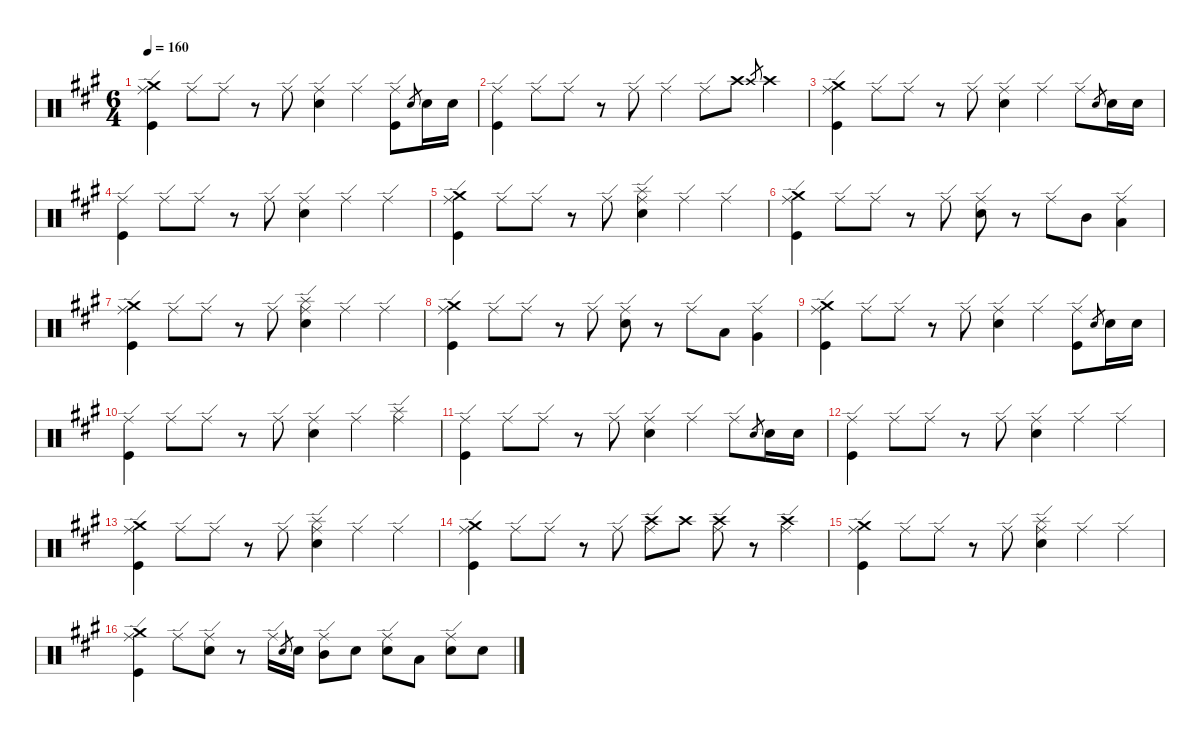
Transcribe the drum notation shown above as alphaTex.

\defaultSystemsLayout 4
\hideDynamics
\bracketExtendMode nobrackets
\singleTrackTrackNamePolicy hidden
\multiTrackTrackNamePolicy hidden
\firstSystemTrackNameMode fullname
\firstSystemTrackNameOrientation horizontal
\otherSystemsTrackNameOrientation horizontal
\track ("Drums" "drm.") {instrument percussion}
\staff {score}
\articulation defaults
\ts (6 4)
\tempo 160
\clef neutral
\ks f#minor
("Crash medium (hit)"{acc forcenatural} "Ride (edge)"{acc forcenatural} "Kick (hit)"{acc forcenatural}).4{dy f beam Down} "Ride (edge)"{acc forcenatural}.8{dy mf beam Down} "Ride (edge)"{acc forcenatural}.8{dy f beam Down} r.8{beam Down} "Ride (edge)"{acc forcenatural}.8{dy mf beam Down} ("Ride (edge)"{acc forcenatural} "Snare (hit) 2"{acc forcenatural}).4{dy f beam Down} "Ride (edge)"{acc forcenatural}.4{beam Down} ("Ride (edge)"{acc forcenatural} "Kick (hit)"{acc forcenatural}).8{beam Down} "Electric Snare (hit)"{acc forcenatural}.8{gr dy ppp beam Up} "Snare (hit) 2"{acc forcenatural}.16{dy p beam Down} "Snare (hit) 2"{acc forcenatural}.16{beam Down} |
("Ride (edge)"{acc forcenatural} "Kick (hit)"{acc forcenatural}).4{dy f beam Down} "Ride (edge)"{acc forcenatural}.8{dy mf beam Down} "Ride (edge)"{acc forcenatural}.8{dy f beam Down} r.8{beam Down} "Ride (edge)"{acc forcenatural}.8{dy mf beam Down} "Ride (edge)"{acc forcenatural}.4{dy f beam Down} "Ride (edge)"{acc forcenatural}.8{beam Down} "Crash high (hit)"{acc forcenatural}.8{dy p beam Down} "Crash high (hit)"{acc forcenatural}.8{gr dy pp beam Up} "Crash high (hit)"{acc forcenatural}.4{dy mp beam Down} |
("Crash medium (hit)"{acc forcenatural} "Ride (edge)"{acc forcenatural} "Kick (hit)"{acc forcenatural}).4{dy f beam Down} "Ride (edge)"{acc forcenatural}.8{dy mf beam Down} "Ride (edge)"{acc forcenatural}.8{dy f beam Down} r.8{beam Down} "Ride (edge)"{acc forcenatural}.8{dy mf beam Down} ("Ride (edge)"{acc forcenatural} "Snare (hit) 2"{acc forcenatural}).4{dy f beam Down} "Ride (edge)"{acc forcenatural}.4{beam Down} "Ride (edge)"{acc forcenatural}.8{beam Down} "Electric Snare (hit)"{acc forcenatural}.8{gr dy ppp beam Up} "Snare (hit) 2"{acc forcenatural}.16{dy p beam Down} "Snare (hit) 2"{acc forcenatural}.16{beam Down} |
("Ride (edge)"{acc forcenatural} "Kick (hit)"{acc forcenatural}).4{dy f beam Down} "Ride (edge)"{acc forcenatural}.8{dy mf beam Down} "Ride (edge)"{acc forcenatural}.8{dy f beam Down} r.8{beam Down} "Ride (edge)"{acc forcenatural}.8{dy mf beam Down} ("Ride (edge)"{acc forcenatural} "Snare (hit) 2"{acc forcenatural}).4{dy f beam Down} "Ride (edge)"{acc forcenatural}.4{beam Down} "Ride (edge)"{acc forcenatural}.4{beam Down} |
("Crash medium (hit)"{acc forcenatural} "Ride (edge)"{acc forcenatural} "Kick (hit)"{acc forcenatural}).4{beam Down} "Ride (edge)"{acc forcenatural}.8{dy mf beam Down} "Ride (edge)"{acc forcenatural}.8{dy f beam Down} r.8{beam Down} "Ride (edge)"{acc forcenatural}.8{dy mf beam Down} ("Splash (hit)"{acc forcenatural} "Ride (edge)"{acc forcenatural} "Snare (hit) 2"{acc forcenatural}).4{beam Down} "Ride (edge)"{acc forcenatural}.4{dy f beam Down} "Ride (edge)"{acc forcenatural}.4{beam Down} |
("Crash medium (hit)"{acc forcenatural} "Ride (edge)"{acc forcenatural} "Kick (hit)"{acc forcenatural}).4{beam Down} "Ride (edge)"{acc forcenatural}.8{dy mf beam Down} "Ride (edge)"{acc forcenatural}.8{dy f beam Down} r.8{beam Down} "Ride (edge)"{acc forcenatural}.8{dy mf beam Down} ("Ride (edge)"{acc forcenatural} "Snare (hit) 2"{acc forcenatural}).8{dy f beam Down} r.8{beam Down} "Ride (edge)"{acc forcenatural}.8{beam Down} "Mid Tom (hit)"{acc forcenatural}.8{beam Down} ("Ride (edge)"{acc forcenatural} "Low Tom (hit)"{acc forcenatural}).4{beam Down} |
("Crash medium (hit)"{acc forcenatural} "Ride (edge)"{acc forcenatural} "Kick (hit)"{acc forcenatural}).4{beam Down} "Ride (edge)"{acc forcenatural}.8{dy mf beam Down} "Ride (edge)"{acc forcenatural}.8{dy f beam Down} r.8{beam Down} "Ride (edge)"{acc forcenatural}.8{dy mf beam Down} ("Splash (hit)"{acc forcenatural} "Ride (edge)"{acc forcenatural} "Snare (hit) 2"{acc forcenatural}).4{beam Down} "Ride (edge)"{acc forcenatural}.4{dy f beam Down} "Ride (edge)"{acc forcenatural}.4{beam Down} |
("Crash medium (hit)"{acc forcenatural} "Ride (edge)"{acc forcenatural} "Kick (hit)"{acc forcenatural}).4{beam Down} "Ride (edge)"{acc forcenatural}.8{dy mf beam Down} "Ride (edge)"{acc forcenatural}.8{dy f beam Down} r.8{beam Down} "Ride (edge)"{acc forcenatural}.8{dy mf beam Down} ("Ride (edge)"{acc forcenatural} "Snare (hit) 2"{acc forcenatural}).8{dy f beam Down} r.8{beam Down} "Ride (edge)"{acc forcenatural}.8{beam Down} "Low Tom (hit)"{acc forcenatural}.8{beam Up} ("Ride (edge)"{acc forcenatural} "Very Low Tom (hit)"{acc forcenatural}).4{beam Down} |
("Crash medium (hit)"{acc forcenatural} "Ride (edge)"{acc forcenatural} "Kick (hit)"{acc forcenatural}).4{beam Down} "Ride (edge)"{acc forcenatural}.8{dy mf beam Down} "Ride (edge)"{acc forcenatural}.8{dy f beam Down} r.8{beam Down} "Ride (edge)"{acc forcenatural}.8{dy mf beam Down} ("Ride (edge)"{acc forcenatural} "Snare (hit) 2"{acc forcenatural}).4{dy f beam Down} "Ride (edge)"{acc forcenatural}.4{beam Down} ("Ride (edge)"{acc forcenatural} "Kick (hit)"{acc forcenatural}).8{beam Down} "Electric Snare (hit)"{acc forcenatural}.8{gr dy ppp beam Up} "Snare (hit) 2"{acc forcenatural}.16{dy p beam Down} "Snare (hit) 2"{acc forcenatural}.16{beam Down} |
("Ride (edge)"{acc forcenatural} "Kick (hit)"{acc forcenatural}).4{dy f beam Down} "Ride (edge)"{acc forcenatural}.8{dy mf beam Down} "Ride (edge)"{acc forcenatural}.8{dy f beam Down} r.8{beam Down} "Ride (edge)"{acc forcenatural}.8{dy mf beam Down} ("Ride (edge)"{acc forcenatural} "Snare (hit) 2"{acc forcenatural}).4{dy f beam Down} "Ride (edge)"{acc forcenatural}.4{beam Down} ("Splash (hit)"{acc forcenatural} "Ride (edge)"{acc forcenatural}).4{dy mf beam Down} |
("Ride (edge)"{acc forcenatural} "Kick (hit)"{acc forcenatural}).4{dy f beam Down} "Ride (edge)"{acc forcenatural}.8{dy mf beam Down} "Ride (edge)"{acc forcenatural}.8{dy f beam Down} r.8{beam Down} "Ride (edge)"{acc forcenatural}.8{dy mf beam Down} ("Ride (edge)"{acc forcenatural} "Snare (hit) 2"{acc forcenatural}).4{dy f beam Down} "Ride (edge)"{acc forcenatural}.4{beam Down} "Ride (edge)"{acc forcenatural}.8{beam Down} "Electric Snare (hit)"{acc forcenatural}.8{gr dy ppp beam Up} "Snare (hit) 2"{acc forcenatural}.16{dy p beam Down} "Snare (hit) 2"{acc forcenatural}.16{beam Down} |
("Ride (edge)"{acc forcenatural} "Kick (hit)"{acc forcenatural}).4{dy f beam Down} "Ride (edge)"{acc forcenatural}.8{dy mf beam Down} "Ride (edge)"{acc forcenatural}.8{dy f beam Down} r.8{beam Down} "Ride (edge)"{acc forcenatural}.8{dy mf beam Down} ("Ride (edge)"{acc forcenatural} "Snare (hit) 2"{acc forcenatural}).4{dy f beam Down} "Ride (edge)"{acc forcenatural}.4{beam Down} "Ride (edge)"{acc forcenatural}.4{beam Down} |
("Crash medium (hit)"{acc forcenatural} "Ride (edge)"{acc forcenatural} "Kick (hit)"{acc forcenatural}).4{beam Down} "Ride (edge)"{acc forcenatural}.8{dy mf beam Down} "Ride (edge)"{acc forcenatural}.8{dy f beam Down} r.8{beam Down} "Ride (edge)"{acc forcenatural}.8{dy mf beam Down} ("Splash (hit)"{acc forcenatural} "Ride (edge)"{acc forcenatural} "Snare (hit) 2"{acc forcenatural}).4{beam Down} "Ride (edge)"{acc forcenatural}.4{dy f beam Down} "Ride (edge)"{acc forcenatural}.4{beam Down} |
("Crash medium (hit)"{acc forcenatural} "Ride (edge)"{acc forcenatural} "Kick (hit)"{acc forcenatural}).4{beam Down} "Ride (edge)"{acc forcenatural}.8{dy mf beam Down} "Ride (edge)"{acc forcenatural}.8{dy f beam Down} r.8{beam Down} "Ride (edge)"{acc forcenatural}.8{dy mf beam Down} ("Crash high (hit)"{acc forcenatural} "Ride (edge)"{acc forcenatural}).8{dy p beam Down} "Crash high (hit)"{acc forcenatural}.8{beam Down} ("Crash high (hit)"{acc forcenatural} "Ride (edge)"{acc forcenatural}).8{dy mf beam Down} r.8{beam Down} ("Crash high (hit)"{acc forcenatural} "Ride (edge)"{acc forcenatural}).4{beam Down} |
("Crash medium (hit)"{acc forcenatural} "Ride (edge)"{acc forcenatural} "Kick (hit)"{acc forcenatural}).4{dy f beam Down} "Ride (edge)"{acc forcenatural}.8{dy mf beam Down} "Ride (edge)"{acc forcenatural}.8{dy f beam Down} r.8{beam Down} "Ride (edge)"{acc forcenatural}.8{dy mf beam Down} ("Splash (hit)"{acc forcenatural} "Ride (edge)"{acc forcenatural} "Snare (hit) 2"{acc forcenatural}).4{beam Down} "Ride (edge)"{acc forcenatural}.4{dy f beam Down} "Ride (edge)"{acc forcenatural}.4{beam Down} |
("Crash medium (hit)"{acc forcenatural} "Ride (edge)"{acc forcenatural} "Kick (hit)"{acc forcenatural}).4{beam Down} "Ride (edge)"{acc forcenatural}.8{dy mf beam Down} ("Ride (edge)"{acc forcenatural} "Snare (hit) 2"{acc forcenatural}).8{dy f beam Down} r.8{beam Down} "Ride (edge)"{acc forcenatural}.16{dy mf beam Down} "Electric Snare (hit)"{acc forcenatural}.8{gr dy pp beam Up} "Snare (hit) 2"{acc forcenatural}.16{dy mp beam Down} ("Ride (edge)"{acc forcenatural} "Mid Tom (hit)"{acc forcenatural}).8{dy f beam Down} "Snare (hit) 2"{acc forcenatural}.8{dy p beam Down} ("Ride (edge)"{acc forcenatural} "Snare (hit) 2"{acc forcenatural}).8{dy f beam Down} "Low Tom (hit)"{acc forcenatural}.8{beam Down} ("Ride (edge)"{acc forcenatural} "Snare (hit) 2"{acc forcenatural}).8{beam Down} "Snare (hit) 2"{acc forcenatural}.8{dy p beam Down}
